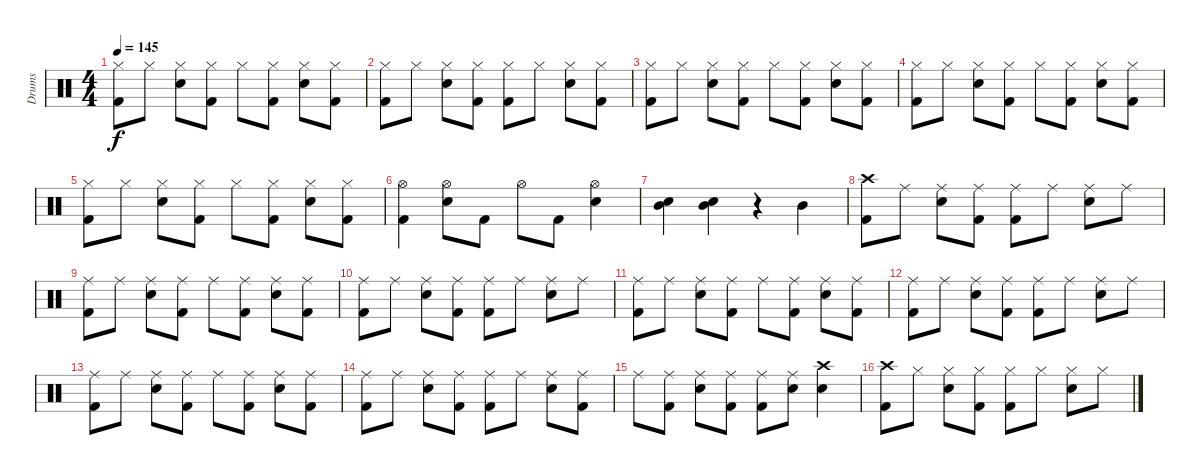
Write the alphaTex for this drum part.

\track ("Drums" "Drums") {instrument percussion}
\staff {score}
\articulation defaults
\ts (4 4)
\tempo 145
\clef neutral
\ks c
("Hi-Hat (closed)" "Kick (hit) 2").8{dy f} "Hi-Hat (closed)".8 ("Hi-Hat (closed)" "Electric Snare (hit)").8 ("Hi-Hat (closed)" "Kick (hit) 2").8 "Hi-Hat (closed)".8 ("Hi-Hat (closed)" "Kick (hit) 2").8 ("Hi-Hat (closed)" "Electric Snare (hit)").8 ("Hi-Hat (closed)" "Kick (hit) 2").8 |
("Hi-Hat (closed)" "Kick (hit) 2").8 "Hi-Hat (closed)".8 ("Hi-Hat (closed)" "Electric Snare (hit)").8 ("Hi-Hat (closed)" "Kick (hit) 2").8 ("Hi-Hat (closed)" "Kick (hit) 2").8 "Hi-Hat (closed)".8 ("Hi-Hat (closed)" "Electric Snare (hit)").8 ("Hi-Hat (closed)" "Kick (hit) 2").8 |
("Hi-Hat (closed)" "Kick (hit) 2").8 "Hi-Hat (closed)".8 ("Hi-Hat (closed)" "Electric Snare (hit)").8 ("Hi-Hat (closed)" "Kick (hit) 2").8 "Hi-Hat (closed)".8 ("Hi-Hat (closed)" "Kick (hit) 2").8 ("Hi-Hat (closed)" "Electric Snare (hit)").8 ("Hi-Hat (closed)" "Kick (hit) 2").8 |
("Hi-Hat (closed)" "Kick (hit) 2").8 "Hi-Hat (closed)".8 ("Hi-Hat (closed)" "Electric Snare (hit)").8 ("Hi-Hat (closed)" "Kick (hit) 2").8 "Hi-Hat (closed)".8 ("Hi-Hat (closed)" "Kick (hit) 2").8 ("Hi-Hat (closed)" "Electric Snare (hit)").8 ("Hi-Hat (closed)" "Kick (hit) 2").8 |
("Hi-Hat (closed)" "Kick (hit) 2").8 "Hi-Hat (closed)".8 ("Hi-Hat (closed)" "Electric Snare (hit)").8 ("Hi-Hat (closed)" "Kick (hit) 2").8 "Hi-Hat (closed)".8 ("Hi-Hat (closed)" "Kick (hit) 2").8 ("Hi-Hat (closed)" "Electric Snare (hit)").8 ("Hi-Hat (closed)" "Kick (hit) 2").8 |
("Hi-Hat (open)" "Kick (hit) 2").4 ("Hi-Hat (open)" "Electric Snare (hit)").8 "Kick (hit) 2".8 "Hi-Hat (open)".8 "Kick (hit) 2".8 ("Hi-Hat (open)" "Electric Snare (hit)").4 |
("Electric Snare (hit)" "Mid Tom (hit)").4 ("Electric Snare (hit)" "Mid Tom (hit)").4 r.4 "Mid Tom (hit)".4 |
("Crash high (hit)" "Kick (hit) 2").8 "Ride (middle)".8 ("Ride (middle)" "Electric Snare (hit)").8 ("Ride (middle)" "Kick (hit) 2").8 ("Ride (middle)" "Kick (hit) 2").8 "Ride (middle)".8 ("Ride (middle)" "Electric Snare (hit)").8 "Ride (middle)".8 |
("Ride (middle)" "Kick (hit) 2").8 "Ride (middle)".8 ("Ride (middle)" "Electric Snare (hit)").8 ("Ride (middle)" "Kick (hit) 2").8 "Ride (middle)".8 ("Ride (middle)" "Kick (hit) 2").8 ("Ride (middle)" "Electric Snare (hit)").8 ("Ride (middle)" "Kick (hit) 2").8 |
("Ride (middle)" "Kick (hit) 2").8 "Ride (middle)".8 ("Ride (middle)" "Electric Snare (hit)").8 ("Ride (middle)" "Kick (hit) 2").8 ("Ride (middle)" "Kick (hit) 2").8 "Ride (middle)".8 ("Ride (middle)" "Electric Snare (hit)").8 "Ride (middle)".8 |
("Ride (middle)" "Kick (hit) 2").8 "Ride (middle)".8 ("Ride (middle)" "Electric Snare (hit)").8 ("Ride (middle)" "Kick (hit) 2").8 "Ride (middle)".8 ("Ride (middle)" "Kick (hit) 2").8 ("Ride (middle)" "Electric Snare (hit)").8 ("Ride (middle)" "Kick (hit) 2").8 |
("Ride (middle)" "Kick (hit) 2").8 "Ride (middle)".8 ("Ride (middle)" "Electric Snare (hit)").8 ("Ride (middle)" "Kick (hit) 2").8 ("Ride (middle)" "Kick (hit) 2").8 "Ride (middle)".8 ("Ride (middle)" "Electric Snare (hit)").8 "Ride (middle)".8 |
("Ride (middle)" "Kick (hit) 2").8 "Ride (middle)".8 ("Ride (middle)" "Electric Snare (hit)").8 ("Ride (middle)" "Kick (hit) 2").8 "Ride (middle)".8 ("Ride (middle)" "Kick (hit) 2").8 ("Ride (middle)" "Electric Snare (hit)").8 ("Ride (middle)" "Kick (hit) 2").8 |
("Ride (middle)" "Kick (hit) 2").8 "Ride (middle)".8 ("Ride (middle)" "Electric Snare (hit)").8 ("Ride (middle)" "Kick (hit) 2").8 ("Ride (middle)" "Kick (hit) 2").8 "Ride (middle)".8 ("Ride (middle)" "Electric Snare (hit)").8 ("Ride (middle)" "Kick (hit) 2").8 |
"Ride (middle)".8 ("Ride (middle)" "Kick (hit) 2").8 ("Ride (middle)" "Electric Snare (hit)").8 ("Ride (middle)" "Kick (hit) 2").8 ("Ride (middle)" "Kick (hit) 2").8 ("Ride (middle)" "Electric Snare (hit)").8 ("Crash high (hit)" "Electric Snare (hit)").4 |
("Crash high (hit)" "Kick (hit) 2").8 "Hi-Hat (closed)".8 ("Hi-Hat (closed)" "Electric Snare (hit)").8 ("Hi-Hat (closed)" "Kick (hit) 2").8 ("Hi-Hat (closed)" "Kick (hit) 2").8 "Hi-Hat (closed)".8 ("Hi-Hat (closed)" "Electric Snare (hit)").8 "Hi-Hat (closed)".8
